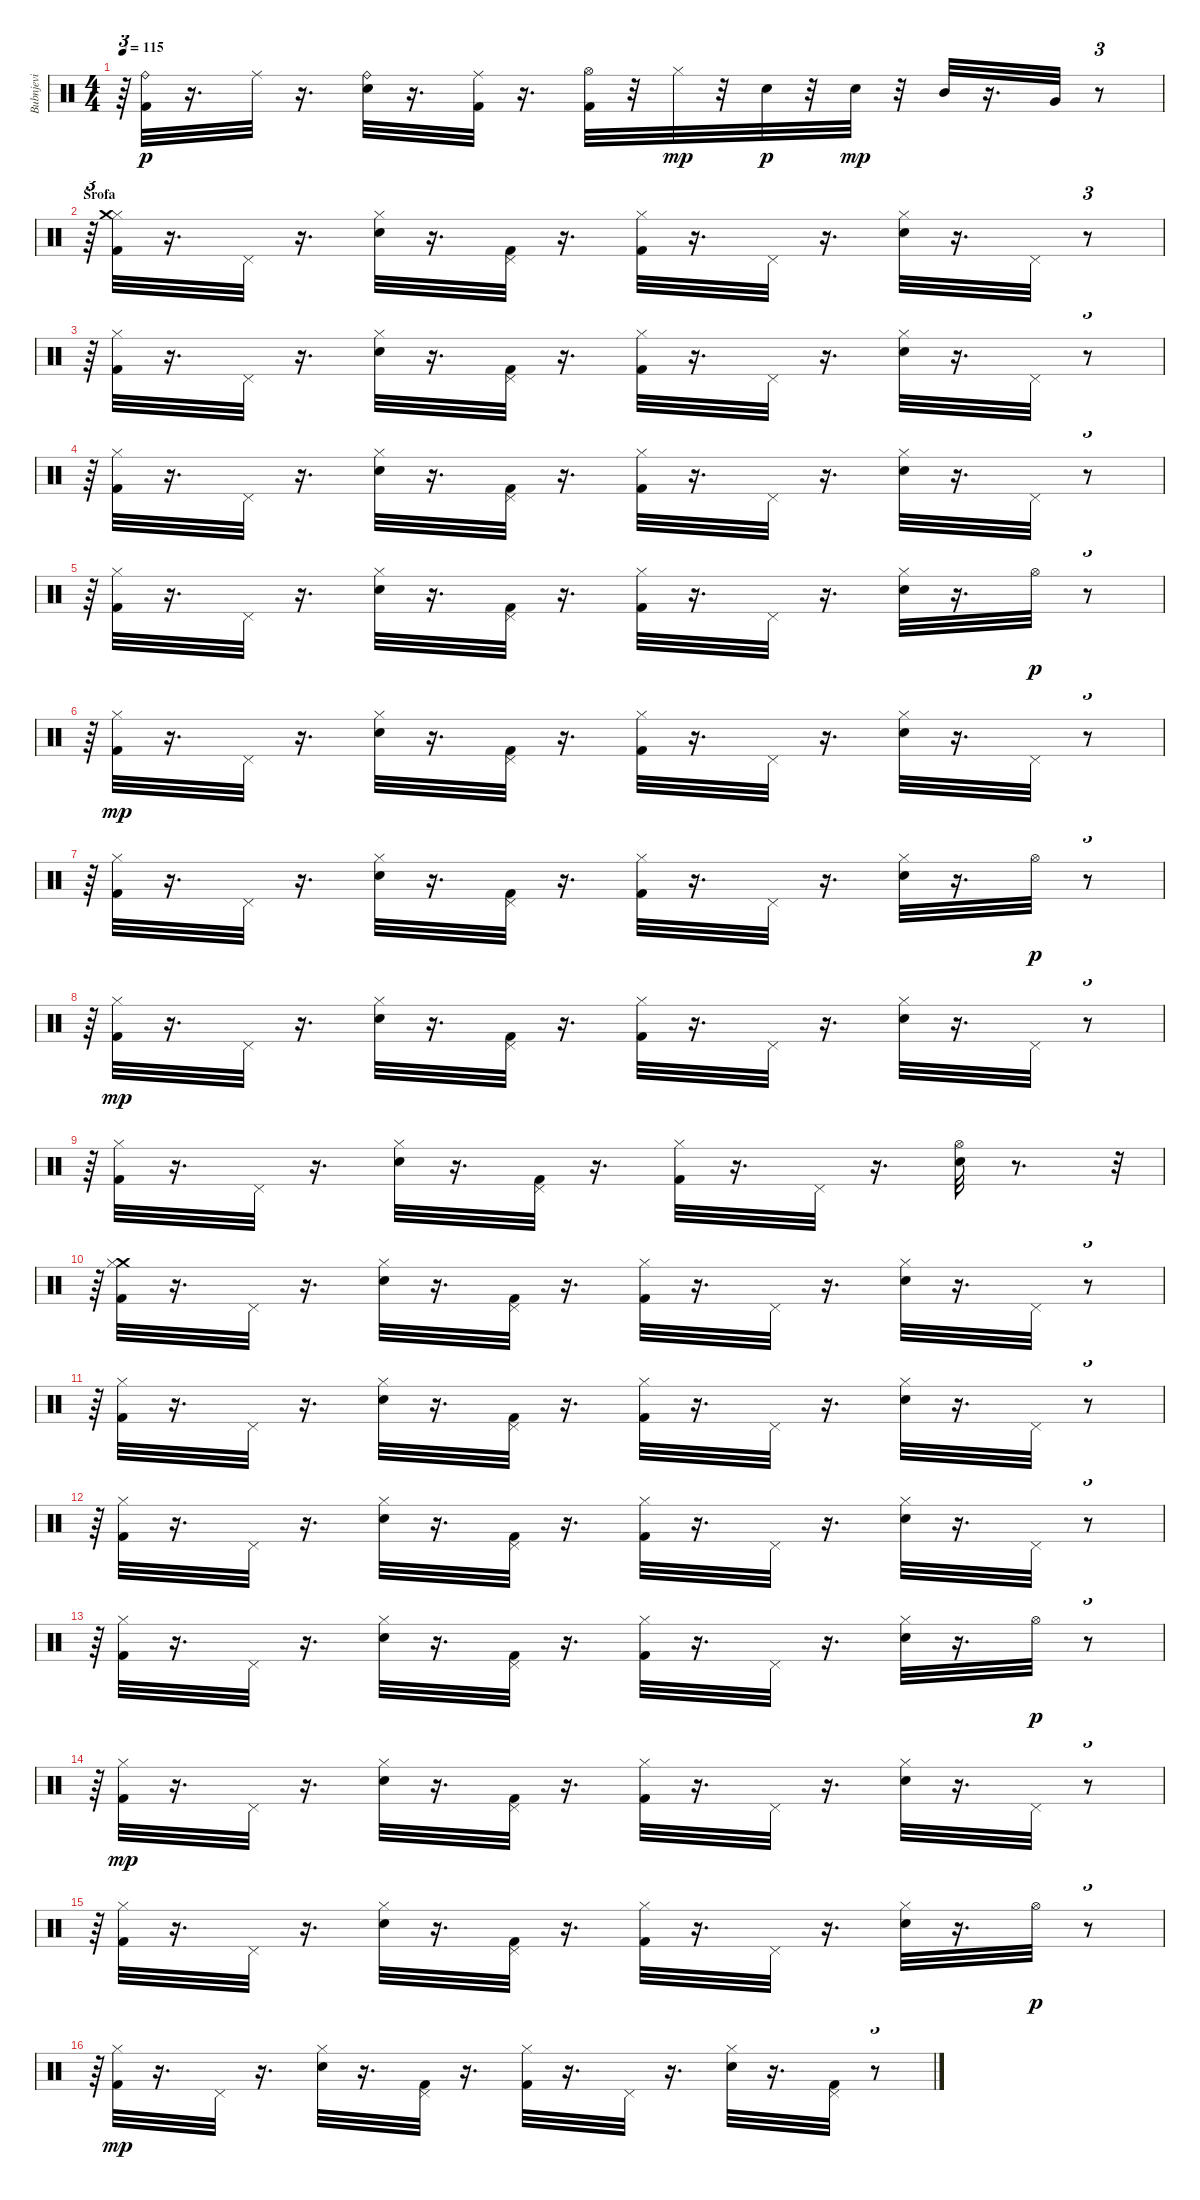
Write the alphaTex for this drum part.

\track ("Bubnjevi" "Bubnjevi") {instrument percussion}
\staff {score}
\articulation defaults
\ts (4 4)
\tempo 115
\clef neutral
\ks c
r.64{tu (3 2) dy p} ("Kick (hit) 2" "Ride (bell)").32 r.16{d} "Ride (middle)".32 r.16{d} ("Electric Snare (hit)" "Ride (bell)").32 r.16{d} ("Kick (hit) 2" "Ride (middle)").32 r.16{d} ("Hi-Hat (open)" "Kick (hit) 2").32 r.32 "Hi-Hat (closed)".32{dy mp} r.32 "Electric Snare (hit)".32{dy p} r.32 "Electric Snare (hit)".32{dy mp} r.32 "Mid Tom (hit)".32 r.16{d} "Very Low Tom (hit)".32 r.8{tu (3 2)} |
\section ("" "Srofa")
r.64{tu (3 2)} ("Hi-Hat (closed)" "Kick (hit) 2" "Crash medium (hit)").32 r.16{d} "Pedal Hi-Hat (hit)".32 r.16{d} ("Hi-Hat (closed)" "Electric Snare (hit)").32 r.16{d} ("Pedal Hi-Hat (hit)" "Kick (hit) 2").32 r.16{d} ("Hi-Hat (closed)" "Kick (hit) 2").32 r.16{d} "Pedal Hi-Hat (hit)".32 r.16{d} ("Hi-Hat (closed)" "Electric Snare (hit)").32 r.16{d} "Pedal Hi-Hat (hit)".32 r.8{tu (3 2)} |
r.64{tu (3 2)} ("Kick (hit) 2" "Hi-Hat (closed)").32 r.16{d} "Pedal Hi-Hat (hit)".32 r.16{d} ("Electric Snare (hit)" "Hi-Hat (closed)").32 r.16{d} ("Kick (hit) 2" "Pedal Hi-Hat (hit)").32 r.16{d} ("Kick (hit) 2" "Hi-Hat (closed)").32 r.16{d} "Pedal Hi-Hat (hit)".32 r.16{d} ("Electric Snare (hit)" "Hi-Hat (closed)").32 r.16{d} "Pedal Hi-Hat (hit)".32 r.8{tu (3 2)} |
r.64{tu (3 2)} ("Kick (hit) 2" "Hi-Hat (closed)").32 r.16{d} "Pedal Hi-Hat (hit)".32 r.16{d} ("Electric Snare (hit)" "Hi-Hat (closed)").32 r.16{d} ("Kick (hit) 2" "Pedal Hi-Hat (hit)").32 r.16{d} ("Kick (hit) 2" "Hi-Hat (closed)").32 r.16{d} "Pedal Hi-Hat (hit)".32 r.16{d} ("Electric Snare (hit)" "Hi-Hat (closed)").32 r.16{d} "Pedal Hi-Hat (hit)".32 r.8{tu (3 2)} |
r.64{tu (3 2)} ("Hi-Hat (closed)" "Kick (hit) 2").32 r.16{d} "Pedal Hi-Hat (hit)".32 r.16{d} ("Hi-Hat (closed)" "Electric Snare (hit)").32 r.16{d} ("Pedal Hi-Hat (hit)" "Kick (hit) 2").32 r.16{d} ("Hi-Hat (closed)" "Kick (hit) 2").32 r.16{d} "Pedal Hi-Hat (hit)".32 r.16{d} ("Hi-Hat (closed)" "Electric Snare (hit)").32 r.16{d} "Hi-Hat (open)".32{dy p} r.8{tu (3 2)} |
r.64{tu (3 2)} ("Kick (hit) 2" "Hi-Hat (closed)").32{dy mp} r.16{d} "Pedal Hi-Hat (hit)".32 r.16{d} ("Electric Snare (hit)" "Hi-Hat (closed)").32 r.16{d} ("Kick (hit) 2" "Pedal Hi-Hat (hit)").32 r.16{d} ("Kick (hit) 2" "Hi-Hat (closed)").32 r.16{d} "Pedal Hi-Hat (hit)".32 r.16{d} ("Electric Snare (hit)" "Hi-Hat (closed)").32 r.16{d} "Pedal Hi-Hat (hit)".32 r.8{tu (3 2)} |
r.64{tu (3 2)} ("Hi-Hat (closed)" "Kick (hit) 2").32 r.16{d} "Pedal Hi-Hat (hit)".32 r.16{d} ("Hi-Hat (closed)" "Electric Snare (hit)").32 r.16{d} ("Pedal Hi-Hat (hit)" "Kick (hit) 2").32 r.16{d} ("Hi-Hat (closed)" "Kick (hit) 2").32 r.16{d} "Pedal Hi-Hat (hit)".32 r.16{d} ("Hi-Hat (closed)" "Electric Snare (hit)").32 r.16{d} "Hi-Hat (open)".32{dy p} r.8{tu (3 2)} |
r.64{tu (3 2)} ("Hi-Hat (closed)" "Kick (hit) 2").32{dy mp} r.16{d} "Pedal Hi-Hat (hit)".32 r.16{d} ("Hi-Hat (closed)" "Electric Snare (hit)").32 r.16{d} ("Pedal Hi-Hat (hit)" "Kick (hit) 2").32 r.16{d} ("Hi-Hat (closed)" "Kick (hit) 2").32 r.16{d} "Pedal Hi-Hat (hit)".32 r.16{d} ("Hi-Hat (closed)" "Electric Snare (hit)").32 r.16{d} "Pedal Hi-Hat (hit)".32 r.8{tu (3 2)} |
r.64{tu (3 2)} ("Kick (hit) 2" "Hi-Hat (closed)").32 r.16{d} "Pedal Hi-Hat (hit)".32 r.16{d} ("Electric Snare (hit)" "Hi-Hat (closed)").32 r.16{d} ("Kick (hit) 2" "Pedal Hi-Hat (hit)").32 r.16{d} ("Kick (hit) 2" "Hi-Hat (closed)").32 r.16{d} "Pedal Hi-Hat (hit)".32 r.16{d} ("Hi-Hat (open)" "Electric Snare (hit)").32 r.8{d} r.32{tu (3 2)} |
r.64{tu (3 2)} ("Crash medium (hit)" "Kick (hit) 2" "Hi-Hat (closed)").32 r.16{d} "Pedal Hi-Hat (hit)".32 r.16{d} ("Electric Snare (hit)" "Hi-Hat (closed)").32 r.16{d} ("Kick (hit) 2" "Pedal Hi-Hat (hit)").32 r.16{d} ("Kick (hit) 2" "Hi-Hat (closed)").32 r.16{d} "Pedal Hi-Hat (hit)".32 r.16{d} ("Electric Snare (hit)" "Hi-Hat (closed)").32 r.16{d} "Pedal Hi-Hat (hit)".32 r.8{tu (3 2)} |
r.64{tu (3 2)} ("Hi-Hat (closed)" "Kick (hit) 2").32 r.16{d} "Pedal Hi-Hat (hit)".32 r.16{d} ("Hi-Hat (closed)" "Electric Snare (hit)").32 r.16{d} ("Pedal Hi-Hat (hit)" "Kick (hit) 2").32 r.16{d} ("Hi-Hat (closed)" "Kick (hit) 2").32 r.16{d} "Pedal Hi-Hat (hit)".32 r.16{d} ("Hi-Hat (closed)" "Electric Snare (hit)").32 r.16{d} "Pedal Hi-Hat (hit)".32 r.8{tu (3 2)} |
r.64{tu (3 2)} ("Hi-Hat (closed)" "Kick (hit) 2").32 r.16{d} "Pedal Hi-Hat (hit)".32 r.16{d} ("Hi-Hat (closed)" "Electric Snare (hit)").32 r.16{d} ("Pedal Hi-Hat (hit)" "Kick (hit) 2").32 r.16{d} ("Hi-Hat (closed)" "Kick (hit) 2").32 r.16{d} "Pedal Hi-Hat (hit)".32 r.16{d} ("Hi-Hat (closed)" "Electric Snare (hit)").32 r.16{d} "Pedal Hi-Hat (hit)".32 r.8{tu (3 2)} |
r.64{tu (3 2)} ("Kick (hit) 2" "Hi-Hat (closed)").32 r.16{d} "Pedal Hi-Hat (hit)".32 r.16{d} ("Electric Snare (hit)" "Hi-Hat (closed)").32 r.16{d} ("Kick (hit) 2" "Pedal Hi-Hat (hit)").32 r.16{d} ("Kick (hit) 2" "Hi-Hat (closed)").32 r.16{d} "Pedal Hi-Hat (hit)".32 r.16{d} ("Electric Snare (hit)" "Hi-Hat (closed)").32 r.16{d} "Hi-Hat (open)".32{dy p} r.8{tu (3 2)} |
r.64{tu (3 2)} ("Hi-Hat (closed)" "Kick (hit) 2").32{dy mp} r.16{d} "Pedal Hi-Hat (hit)".32 r.16{d} ("Hi-Hat (closed)" "Electric Snare (hit)").32 r.16{d} ("Pedal Hi-Hat (hit)" "Kick (hit) 2").32 r.16{d} ("Hi-Hat (closed)" "Kick (hit) 2").32 r.16{d} "Pedal Hi-Hat (hit)".32 r.16{d} ("Hi-Hat (closed)" "Electric Snare (hit)").32 r.16{d} "Pedal Hi-Hat (hit)".32 r.8{tu (3 2)} |
r.64{tu (3 2)} ("Kick (hit) 2" "Hi-Hat (closed)").32 r.16{d} "Pedal Hi-Hat (hit)".32 r.16{d} ("Electric Snare (hit)" "Hi-Hat (closed)").32 r.16{d} ("Kick (hit) 2" "Pedal Hi-Hat (hit)").32 r.16{d} ("Kick (hit) 2" "Hi-Hat (closed)").32 r.16{d} "Pedal Hi-Hat (hit)".32 r.16{d} ("Electric Snare (hit)" "Hi-Hat (closed)").32 r.16{d} "Hi-Hat (open)".32{dy p} r.8{tu (3 2)} |
r.64{tu (3 2)} ("Kick (hit) 2" "Hi-Hat (closed)").32{dy mp} r.16{d} "Pedal Hi-Hat (hit)".32 r.16{d} ("Electric Snare (hit)" "Hi-Hat (closed)").32 r.16{d} ("Kick (hit) 2" "Pedal Hi-Hat (hit)").32 r.16{d} ("Kick (hit) 2" "Hi-Hat (closed)").32 r.16{d} "Pedal Hi-Hat (hit)".32 r.16{d} ("Electric Snare (hit)" "Hi-Hat (closed)").32 r.16{d} ("Kick (hit) 2" "Pedal Hi-Hat (hit)").32 r.8{tu (3 2)}
